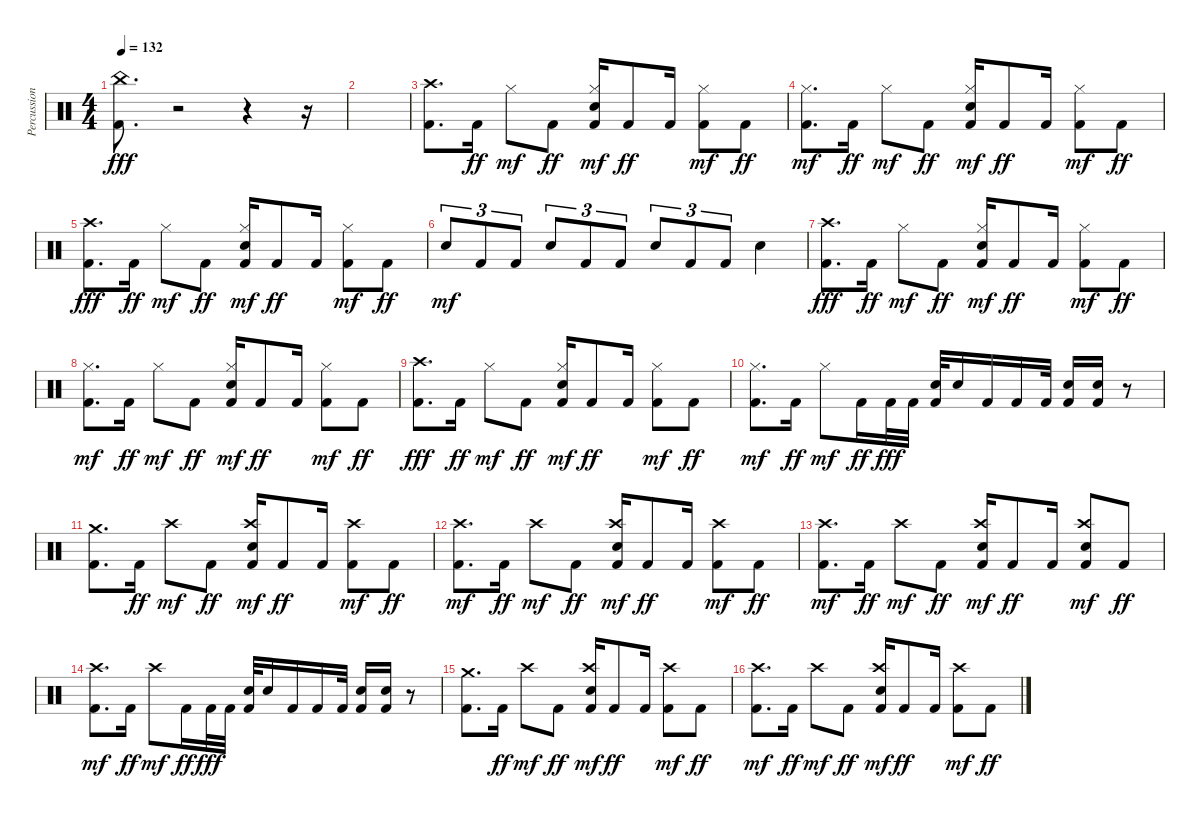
\track ("Percussion" "Percussion") {instrument percussion}
\staff {score}
\articulation defaults
\ts (4 4)
\tempo 132
\clef neutral
\ks c
("Kick (hit) 2" "China (hit)").8{d dy fff} r.2 r.4 r.16 |
|
("Kick (hit) 2" "Crash high (hit)").8{d} "Kick (hit) 2".16{dy ff} "Hi-Hat (closed)".8{dy mf} "Kick (hit) 2".8{dy ff} ("Kick (hit) 2" "Electric Snare (hit)" "Hi-Hat (closed)").16{dy mf} "Kick (hit) 2".8{dy ff} "Kick (hit) 2".16 ("Kick (hit) 2" "Hi-Hat (closed)").8{dy mf} "Kick (hit) 2".8{dy ff} |
("Kick (hit) 2" "Hi-Hat (closed)").8{d dy mf} "Kick (hit) 2".16{dy ff} "Hi-Hat (closed)".8{dy mf} "Kick (hit) 2".8{dy ff} ("Kick (hit) 2" "Electric Snare (hit)" "Hi-Hat (closed)").16{dy mf} "Kick (hit) 2".8{dy ff} "Kick (hit) 2".16 ("Kick (hit) 2" "Hi-Hat (closed)").8{dy mf} "Kick (hit) 2".8{dy ff} |
("Kick (hit) 2" "Crash high (hit)").8{d dy fff} "Kick (hit) 2".16{dy ff} "Hi-Hat (closed)".8{dy mf} "Kick (hit) 2".8{dy ff} ("Kick (hit) 2" "Electric Snare (hit)" "Hi-Hat (closed)").16{dy mf} "Kick (hit) 2".8{dy ff} "Kick (hit) 2".16 ("Kick (hit) 2" "Hi-Hat (closed)").8{dy mf} "Kick (hit) 2".8{dy ff} |
"Electric Snare (hit)".8{tu (3 2) dy mf} "Kick (hit) 2".8{tu (3 2)} "Kick (hit) 2".8{tu (3 2)} "Electric Snare (hit)".8{tu (3 2)} "Kick (hit) 2".8{tu (3 2)} "Kick (hit) 2".8{tu (3 2)} "Electric Snare (hit)".8{tu (3 2)} "Kick (hit) 2".8{tu (3 2)} "Kick (hit) 2".8{tu (3 2)} "Electric Snare (hit)".4 |
("Kick (hit) 2" "Crash high (hit)").8{d dy fff} "Kick (hit) 2".16{dy ff} "Hi-Hat (closed)".8{dy mf} "Kick (hit) 2".8{dy ff} ("Kick (hit) 2" "Electric Snare (hit)" "Hi-Hat (closed)").16{dy mf} "Kick (hit) 2".8{dy ff} "Kick (hit) 2".16 ("Kick (hit) 2" "Hi-Hat (closed)").8{dy mf} "Kick (hit) 2".8{dy ff} |
("Kick (hit) 2" "Hi-Hat (closed)").8{d dy mf} "Kick (hit) 2".16{dy ff} "Hi-Hat (closed)".8{dy mf} "Kick (hit) 2".8{dy ff} ("Kick (hit) 2" "Electric Snare (hit)" "Hi-Hat (closed)").16{dy mf} "Kick (hit) 2".8{dy ff} "Kick (hit) 2".16 ("Kick (hit) 2" "Hi-Hat (closed)").8{dy mf} "Kick (hit) 2".8{dy ff} |
("Kick (hit) 2" "Crash high (hit)").8{d dy fff} "Kick (hit) 2".16{dy ff} "Hi-Hat (closed)".8{dy mf} "Kick (hit) 2".8{dy ff} ("Kick (hit) 2" "Electric Snare (hit)" "Hi-Hat (closed)").16{dy mf} "Kick (hit) 2".8{dy ff} "Kick (hit) 2".16 ("Kick (hit) 2" "Hi-Hat (closed)").8{dy mf} "Kick (hit) 2".8{dy ff} |
("Kick (hit) 2" "Hi-Hat (closed)").8{d dy mf} "Kick (hit) 2".16{dy ff} "Hi-Hat (closed)".8{dy mf} "Kick (hit) 2".16{dy ff} "Kick (hit) 2".32{dy fff} "Kick (hit) 2".32 ("Kick (hit) 2" "Electric Snare (hit)").32 "Electric Snare (hit)".16 "Kick (hit) 2".16 "Kick (hit) 2".16 "Kick (hit) 2".32 ("Kick (hit) 2" "Electric Snare (hit)").16 ("Kick (hit) 2" "Electric Snare (hit)").16 r.8 |
("Kick (hit) 2" "Crash medium (hit)").8{d} "Kick (hit) 2".16{dy ff} "Crash high (hit)".8{dy mf} "Kick (hit) 2".8{dy ff} ("Kick (hit) 2" "Electric Snare (hit)" "Crash high (hit)").16{dy mf} "Kick (hit) 2".8{dy ff} "Kick (hit) 2".16 ("Kick (hit) 2" "Crash high (hit)").8{dy mf} "Kick (hit) 2".8{dy ff} |
("Kick (hit) 2" "Crash high (hit)").8{d dy mf} "Kick (hit) 2".16{dy ff} "Crash high (hit)".8{dy mf} "Kick (hit) 2".8{dy ff} ("Kick (hit) 2" "Electric Snare (hit)" "Crash high (hit)").16{dy mf} "Kick (hit) 2".8{dy ff} "Kick (hit) 2".16 ("Kick (hit) 2" "Crash high (hit)").8{dy mf} "Kick (hit) 2".8{dy ff} |
("Kick (hit) 2" "Crash high (hit)").8{d dy mf} "Kick (hit) 2".16{dy ff} "Crash high (hit)".8{dy mf} "Kick (hit) 2".8{dy ff} ("Kick (hit) 2" "Electric Snare (hit)" "Crash high (hit)").16{dy mf} "Kick (hit) 2".8{dy ff} "Kick (hit) 2".16 ("Kick (hit) 2" "Electric Snare (hit)" "Crash high (hit)").8{dy mf} "Kick (hit) 2".8{dy ff} |
("Kick (hit) 2" "Crash high (hit)").8{d dy mf} "Kick (hit) 2".16{dy ff} "Crash high (hit)".8{dy mf} "Kick (hit) 2".16{dy ff} "Kick (hit) 2".32{dy fff} "Kick (hit) 2".32 ("Kick (hit) 2" "Electric Snare (hit)").32 "Electric Snare (hit)".16 "Kick (hit) 2".16 "Kick (hit) 2".16 "Kick (hit) 2".32 ("Kick (hit) 2" "Electric Snare (hit)").16 ("Kick (hit) 2" "Electric Snare (hit)").16 r.8 |
("Kick (hit) 2" "Crash medium (hit)").8{d} "Kick (hit) 2".16{dy ff} "Crash high (hit)".8{dy mf} "Kick (hit) 2".8{dy ff} ("Kick (hit) 2" "Electric Snare (hit)" "Crash high (hit)").16{dy mf} "Kick (hit) 2".8{dy ff} "Kick (hit) 2".16 ("Kick (hit) 2" "Crash high (hit)").8{dy mf} "Kick (hit) 2".8{dy ff} |
("Kick (hit) 2" "Crash high (hit)").8{d dy mf} "Kick (hit) 2".16{dy ff} "Crash high (hit)".8{dy mf} "Kick (hit) 2".8{dy ff} ("Kick (hit) 2" "Electric Snare (hit)" "Crash high (hit)").16{dy mf} "Kick (hit) 2".8{dy ff} "Kick (hit) 2".16 ("Kick (hit) 2" "Crash high (hit)").8{dy mf} "Kick (hit) 2".8{dy ff}
